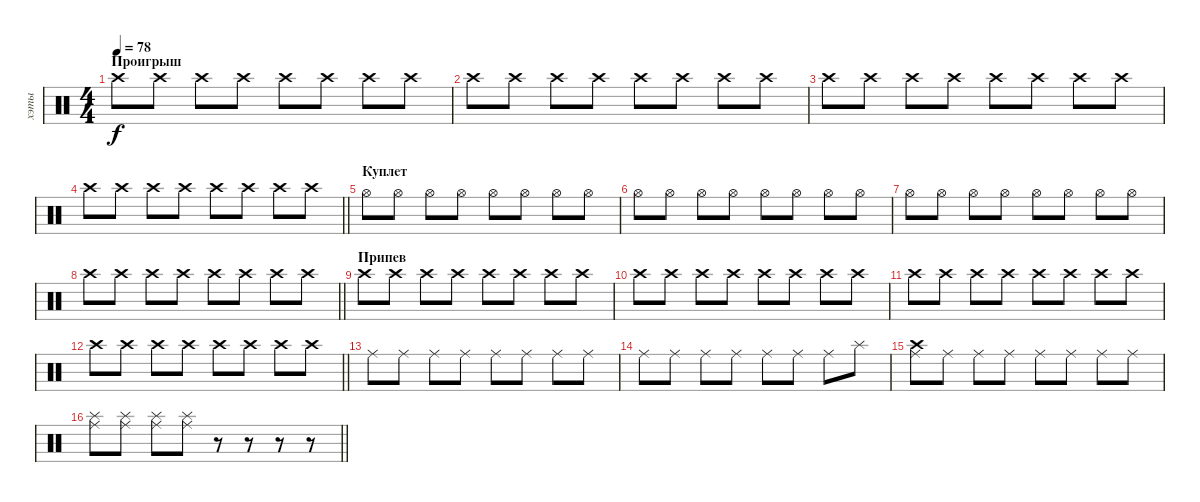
\track ("хэты" "хэты") {instrument percussion}
\staff {score}
\articulation defaults
\ts (4 4)
\section ("" "Проигрыш")
\tempo 78
\clef neutral
\ks c "Crash high (hit)".8{dy f} "Crash high (hit)".8 "Crash high (hit)".8 "Crash high (hit)".8 "Crash high (hit)".8 "Crash high (hit)".8 "Crash high (hit)".8 "Crash high (hit)".8
|
"Crash high (hit)".8 "Crash high (hit)".8 "Crash high (hit)".8 "Crash high (hit)".8 "Crash high (hit)".8 "Crash high (hit)".8 "Crash high (hit)".8 "Crash high (hit)".8 |
"Crash high (hit)".8 "Crash high (hit)".8 "Crash high (hit)".8 "Crash high (hit)".8 "Crash high (hit)".8 "Crash high (hit)".8 "Crash high (hit)".8 "Crash high (hit)".8 |
\barLineRight lightlight "Crash high (hit)".8 "Crash high (hit)".8 "Crash high (hit)".8 "Crash high (hit)".8 "Crash high (hit)".8 "Crash high (hit)".8 "Crash high (hit)".8 "Crash high (hit)".8
|
\section ("" "Куплет")
"Hi-Hat (open)".8 "Hi-Hat (open)".8 "Hi-Hat (open)".8 "Hi-Hat (open)".8 "Hi-Hat (open)".8 "Hi-Hat (open)".8 "Hi-Hat (open)".8 "Hi-Hat (open)".8 |
"Hi-Hat (open)".8 "Hi-Hat (open)".8 "Hi-Hat (open)".8 "Hi-Hat (open)".8 "Hi-Hat (open)".8 "Hi-Hat (open)".8 "Hi-Hat (open)".8 "Hi-Hat (open)".8 |
"Hi-Hat (open)".8 "Hi-Hat (open)".8 "Hi-Hat (open)".8 "Hi-Hat (open)".8 "Hi-Hat (open)".8 "Hi-Hat (open)".8 "Hi-Hat (open)".8 "Hi-Hat (open)".8 |
\barLineRight lightlight "Crash high (hit)".8 "Crash high (hit)".8 "Crash high (hit)".8 "Crash high (hit)".8 "Crash high (hit)".8 "Crash high (hit)".8 "Crash high (hit)".8 "Crash high (hit)".8
|
\section ("" "Припев")
"Crash high (hit)".8 "Crash high (hit)".8 "Crash high (hit)".8 "Crash high (hit)".8 "Crash high (hit)".8 "Crash high (hit)".8 "Crash high (hit)".8 "Crash high (hit)".8 |
"Crash high (hit)".8 "Crash high (hit)".8 "Crash high (hit)".8 "Crash high (hit)".8 "Crash high (hit)".8 "Crash high (hit)".8 "Crash high (hit)".8 "Crash high (hit)".8 |
"Crash high (hit)".8 "Crash high (hit)".8 "Crash high (hit)".8 "Crash high (hit)".8 "Crash high (hit)".8 "Crash high (hit)".8 "Crash high (hit)".8 "Crash high (hit)".8 |
\barLineRight lightlight "Crash high (hit)".8 "Crash high (hit)".8 "Crash high (hit)".8 "Crash high (hit)".8 "Crash high (hit)".8 "Crash high (hit)".8 "Crash high (hit)".8 "Crash high (hit)".8
|
"Ride (middle)".8 "Ride (middle)".8 "Ride (middle)".8 "Ride (middle)".8 "Ride (middle)".8 "Ride (middle)".8 "Ride (middle)".8 "Ride (middle)".8 |
"Ride (middle)".8 "Ride (middle)".8 "Ride (middle)".8 "Ride (middle)".8 "Ride (middle)".8 "Ride (middle)".8 "Ride (middle)".8 "Splash (hit)".8 |
("Crash high (hit)" "Ride (middle)").8 "Ride (middle)".8 "Ride (middle)".8 "Ride (middle)".8 "Ride (middle)".8 "Ride (middle)".8 "Ride (middle)".8 "Ride (middle)".8 |
\barLineRight lightlight
("Ride (middle)" "Splash (hit)").8 ("Ride (middle)" "Splash (hit)").8 ("Ride (middle)" "Splash (hit)").8 ("Ride (middle)" "Splash (hit)").8 r.8 r.8 r.8 r.8
